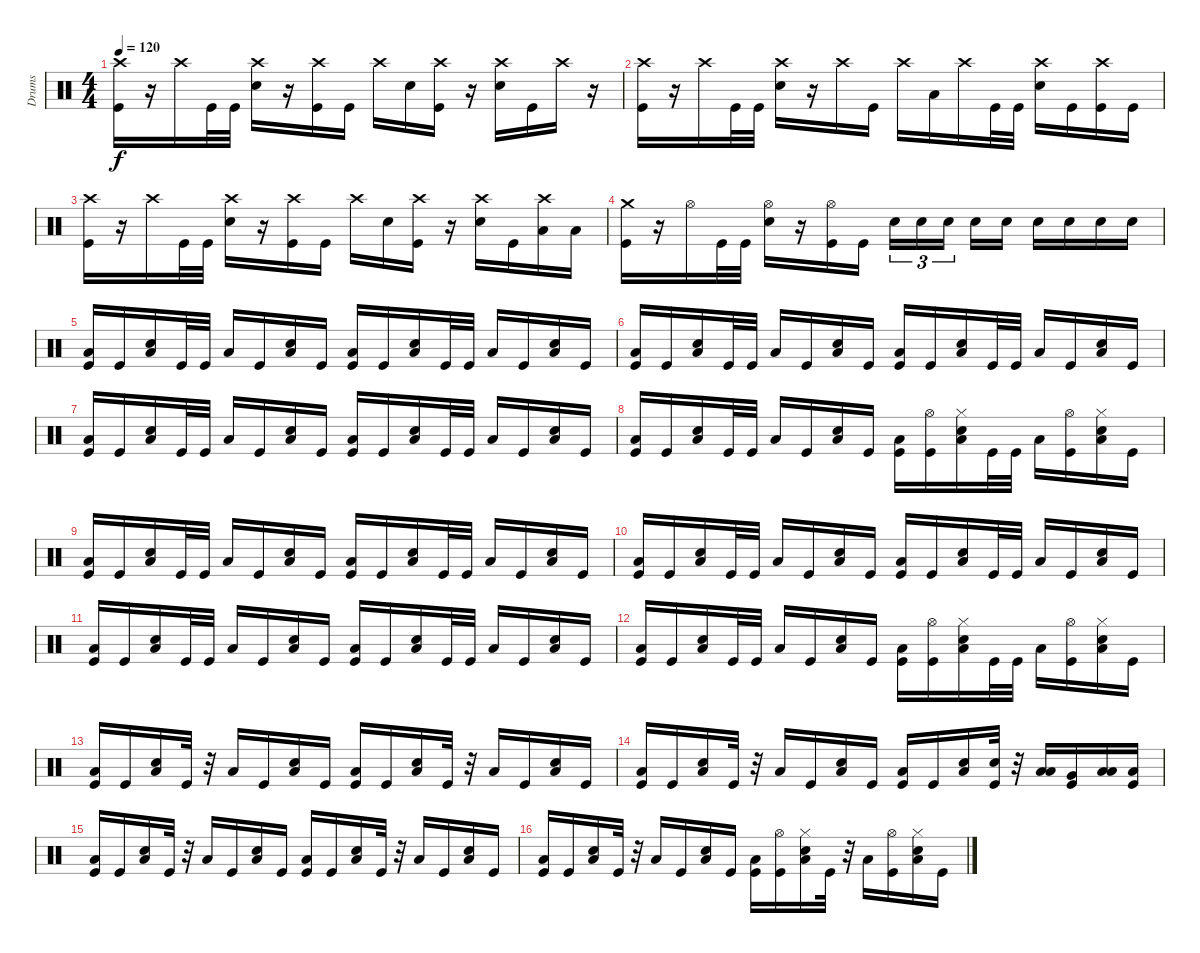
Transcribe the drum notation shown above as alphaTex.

\track ("Drums" "Drums") {instrument percussion}
\staff {score}
\articulation defaults
\ts (4 4)
\tempo 120
\clef neutral
\ks c
("Crash high (hit)" "Kick (hit)").16{dy f} r.16 "Crash high (hit)".16 "Kick (hit)".32 "Kick (hit)".32 ("Crash high (hit)" "Electric Snare (hit)").16 r.16 ("Crash high (hit)" "Kick (hit)").16 "Kick (hit)".16 "Crash high (hit)".16 "Electric Snare (hit)".16 ("Crash high (hit)" "Kick (hit)").16 r.16 ("Crash high (hit)" "Electric Snare (hit)").16 "Kick (hit)".16 "Crash high (hit)".16 r.16 |
("Crash high (hit)" "Kick (hit)").16 r.16 "Crash high (hit)".16 "Kick (hit)".32 "Kick (hit)".32 ("Crash high (hit)" "Electric Snare (hit)").16 r.16 "Crash high (hit)".16 "Kick (hit)".16 "Crash high (hit)".16 "Low Tom (hit)".16 "Crash high (hit)".16 "Kick (hit)".32 "Kick (hit)".32 ("Crash high (hit)" "Electric Snare (hit)").16 "Kick (hit)".16 ("Crash high (hit)" "Kick (hit)").16 "Kick (hit)".16 |
("Crash high (hit)" "Kick (hit)").16 r.16 "Crash high (hit)".16 "Kick (hit)".32 "Kick (hit)".32 ("Crash high (hit)" "Electric Snare (hit)").16 r.16 ("Crash high (hit)" "Kick (hit)").16 "Kick (hit)".16 "Crash high (hit)".16 "Electric Snare (hit)".16 ("Crash high (hit)" "Kick (hit)").16 r.16 ("Crash high (hit)" "Electric Snare (hit)").16 "Kick (hit)".16 ("Crash high (hit)" "Low Tom (hit)").16 "Low Tom (hit)".16 |
("Crash medium (hit)" "Kick (hit)").16 r.16 "Hi-Hat (open)".16 "Kick (hit)".32 "Kick (hit)".32 ("Hi-Hat (open)" "Electric Snare (hit)").16 r.16 ("Hi-Hat (open)" "Kick (hit)").16 "Kick (hit)".16 "Electric Snare (hit)".16{tu (3 2)} "Electric Snare (hit)".16{tu (3 2)} "Electric Snare (hit)".16{tu (3 2)} "Electric Snare (hit)".16 "Electric Snare (hit)".16 "Electric Snare (hit)".16 "Electric Snare (hit)".16 "Electric Snare (hit)".16 "Electric Snare (hit)".16 |
("Low Floor Tom (hit)" "Kick (hit)").16 "Kick (hit)".16 ("Electric Snare (hit)" "Low Floor Tom (hit)").16 "Kick (hit)".32 "Kick (hit)".32 "Low Floor Tom (hit)".16 "Kick (hit)".16 ("Electric Snare (hit)" "Low Floor Tom (hit)").16 "Kick (hit)".16 ("Low Floor Tom (hit)" "Kick (hit)").16 "Kick (hit)".16 ("Electric Snare (hit)" "Low Floor Tom (hit)").16 "Kick (hit)".32 "Kick (hit)".32 "Low Floor Tom (hit)".16 "Kick (hit)".16 ("Electric Snare (hit)" "Low Floor Tom (hit)").16 "Kick (hit)".16 |
("Low Floor Tom (hit)" "Kick (hit)").16 "Kick (hit)".16 ("Electric Snare (hit)" "Low Floor Tom (hit)").16 "Kick (hit)".32 "Kick (hit)".32 "Low Floor Tom (hit)".16 "Kick (hit)".16 ("Electric Snare (hit)" "Low Floor Tom (hit)").16 "Kick (hit)".16 ("Low Floor Tom (hit)" "Kick (hit)").16 "Kick (hit)".16 ("Electric Snare (hit)" "Low Floor Tom (hit)").16 "Kick (hit)".32 "Kick (hit)".32 "Low Floor Tom (hit)".16 "Kick (hit)".16 ("Electric Snare (hit)" "Low Floor Tom (hit)").16 "Kick (hit)".16 |
("Low Floor Tom (hit)" "Kick (hit)").16 "Kick (hit)".16 ("Electric Snare (hit)" "Low Floor Tom (hit)").16 "Kick (hit)".32 "Kick (hit)".32 "Low Floor Tom (hit)".16 "Kick (hit)".16 ("Electric Snare (hit)" "Low Floor Tom (hit)").16 "Kick (hit)".16 ("Low Floor Tom (hit)" "Kick (hit)").16 "Kick (hit)".16 ("Electric Snare (hit)" "Low Floor Tom (hit)").16 "Kick (hit)".32 "Kick (hit)".32 "Low Floor Tom (hit)".16 "Kick (hit)".16 ("Electric Snare (hit)" "Low Floor Tom (hit)").16 "Kick (hit)".16 |
("Low Floor Tom (hit)" "Kick (hit)").16 "Kick (hit)".16 ("Electric Snare (hit)" "Low Floor Tom (hit)").16 "Kick (hit)".32 "Kick (hit)".32 "Low Floor Tom (hit)".16 "Kick (hit)".16 ("Electric Snare (hit)" "Low Floor Tom (hit)").16 "Kick (hit)".16 ("Low Floor Tom (hit)" "Kick (hit)").16 ("Hi-Hat (open)" "Kick (hit)").16 ("Hi-Hat (closed)" "Electric Snare (hit)" "Low Floor Tom (hit)").16 "Kick (hit)".32 "Kick (hit)".32 "Low Floor Tom (hit)".16 ("Hi-Hat (open)" "Kick (hit)").16 ("Hi-Hat (closed)" "Electric Snare (hit)" "Low Floor Tom (hit)").16 "Kick (hit)".16 |
("Low Floor Tom (hit)" "Kick (hit)").16 "Kick (hit)".16 ("Electric Snare (hit)" "Low Floor Tom (hit)").16 "Kick (hit)".32 "Kick (hit)".32 "Low Floor Tom (hit)".16 "Kick (hit)".16 ("Electric Snare (hit)" "Low Floor Tom (hit)").16 "Kick (hit)".16 ("Low Floor Tom (hit)" "Kick (hit)").16 "Kick (hit)".16 ("Electric Snare (hit)" "Low Floor Tom (hit)").16 "Kick (hit)".32 "Kick (hit)".32 "Low Floor Tom (hit)".16 "Kick (hit)".16 ("Electric Snare (hit)" "Low Floor Tom (hit)").16 "Kick (hit)".16 |
("Low Floor Tom (hit)" "Kick (hit)").16 "Kick (hit)".16 ("Electric Snare (hit)" "Low Floor Tom (hit)").16 "Kick (hit)".32 "Kick (hit)".32 "Low Floor Tom (hit)".16 "Kick (hit)".16 ("Electric Snare (hit)" "Low Floor Tom (hit)").16 "Kick (hit)".16 ("Low Floor Tom (hit)" "Kick (hit)").16 "Kick (hit)".16 ("Electric Snare (hit)" "Low Floor Tom (hit)").16 "Kick (hit)".32 "Kick (hit)".32 "Low Floor Tom (hit)".16 "Kick (hit)".16 ("Electric Snare (hit)" "Low Floor Tom (hit)").16 "Kick (hit)".16 |
("Low Floor Tom (hit)" "Kick (hit)").16 "Kick (hit)".16 ("Electric Snare (hit)" "Low Floor Tom (hit)").16 "Kick (hit)".32 "Kick (hit)".32 "Low Floor Tom (hit)".16 "Kick (hit)".16 ("Electric Snare (hit)" "Low Floor Tom (hit)").16 "Kick (hit)".16 ("Low Floor Tom (hit)" "Kick (hit)").16 "Kick (hit)".16 ("Electric Snare (hit)" "Low Floor Tom (hit)").16 "Kick (hit)".32 "Kick (hit)".32 "Low Floor Tom (hit)".16 "Kick (hit)".16 ("Electric Snare (hit)" "Low Floor Tom (hit)").16 "Kick (hit)".16 |
("Low Floor Tom (hit)" "Kick (hit)").16 "Kick (hit)".16 ("Electric Snare (hit)" "Low Floor Tom (hit)").16 "Kick (hit)".32 "Kick (hit)".32 "Low Floor Tom (hit)".16 "Kick (hit)".16 ("Electric Snare (hit)" "Low Floor Tom (hit)").16 "Kick (hit)".16 ("Low Floor Tom (hit)" "Kick (hit)").16 ("Hi-Hat (open)" "Kick (hit)").16 ("Hi-Hat (closed)" "Electric Snare (hit)" "Low Floor Tom (hit)").16 "Kick (hit)".32 "Kick (hit)".32 "Low Floor Tom (hit)".16 ("Hi-Hat (open)" "Kick (hit)").16 ("Hi-Hat (closed)" "Electric Snare (hit)" "Low Floor Tom (hit)").16 "Kick (hit)".16 |
("Low Floor Tom (hit)" "Kick (hit)").16 "Kick (hit)".16 ("Electric Snare (hit)" "Low Floor Tom (hit)").16 "Kick (hit)".32 r.32 "Low Floor Tom (hit)".16 "Kick (hit)".16 ("Electric Snare (hit)" "Low Floor Tom (hit)").16 "Kick (hit)".16 ("Low Floor Tom (hit)" "Kick (hit)").16 "Kick (hit)".16 ("Electric Snare (hit)" "Low Floor Tom (hit)").16 "Kick (hit)".32 r.32 "Low Floor Tom (hit)".16 "Kick (hit)".16 ("Electric Snare (hit)" "Low Floor Tom (hit)").16 "Kick (hit)".16 |
("Low Floor Tom (hit)" "Kick (hit)").16 "Kick (hit)".16 ("Electric Snare (hit)" "Low Floor Tom (hit)").16 "Kick (hit)".32 r.32 "Low Floor Tom (hit)".16 "Kick (hit)".16 ("Electric Snare (hit)" "Low Floor Tom (hit)").16 "Kick (hit)".16 ("Low Floor Tom (hit)" "Kick (hit)").16 "Kick (hit)".16 ("Electric Snare (hit)" "Low Floor Tom (hit)").16 ("Electric Snare (hit)" "Kick (hit)").32 r.32 ("Low Tom (hit)" "Low Floor Tom (hit)").16 ("Very Low Tom (hit)" "Kick (hit)").16 ("Low Floor Tom (hit)" "Low Floor Tom (hit)").16 ("Low Floor Tom (hit)" "Kick (hit)").16 |
("Low Floor Tom (hit)" "Kick (hit)").16 "Kick (hit)".16 ("Electric Snare (hit)" "Low Floor Tom (hit)").16 "Kick (hit)".32 r.32 "Low Floor Tom (hit)".16 "Kick (hit)".16 ("Electric Snare (hit)" "Low Floor Tom (hit)").16 "Kick (hit)".16 ("Low Floor Tom (hit)" "Kick (hit)").16 "Kick (hit)".16 ("Electric Snare (hit)" "Low Floor Tom (hit)").16 "Kick (hit)".32 r.32 "Low Floor Tom (hit)".16 "Kick (hit)".16 ("Electric Snare (hit)" "Low Floor Tom (hit)").16 "Kick (hit)".16 |
("Low Floor Tom (hit)" "Kick (hit)").16 "Kick (hit)".16 ("Electric Snare (hit)" "Low Floor Tom (hit)").16 "Kick (hit)".32 r.32 "Low Floor Tom (hit)".16 "Kick (hit)".16 ("Electric Snare (hit)" "Low Floor Tom (hit)").16 "Kick (hit)".16 ("Low Floor Tom (hit)" "Kick (hit)").16 ("Hi-Hat (open)" "Kick (hit)").16 ("Hi-Hat (closed)" "Electric Snare (hit)" "Low Floor Tom (hit)").16 "Kick (hit)".32 r.32 "Low Floor Tom (hit)".16 ("Hi-Hat (open)" "Kick (hit)").16 ("Hi-Hat (closed)" "Electric Snare (hit)" "Low Floor Tom (hit)").16 "Kick (hit)".16
